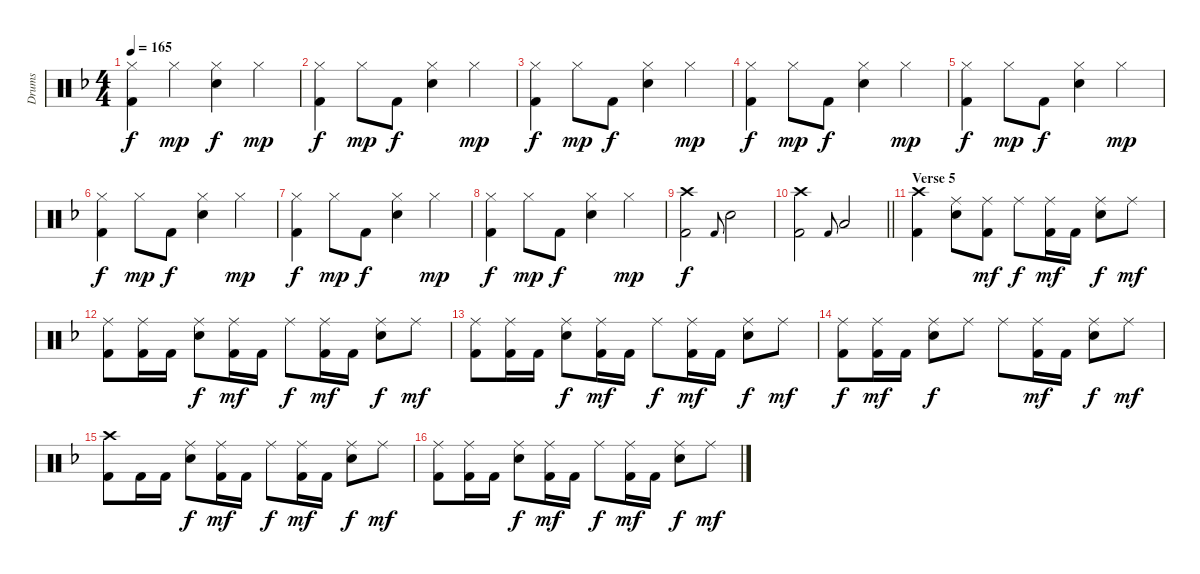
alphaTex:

\track ("Drums" "Drums") {instrument percussion}
\staff {score}
\articulation defaults
\ts (4 4)
\tempo 165
\clef neutral
\ks f
("Hi-Hat (closed)" "Kick (hit) 2").4{dy f} "Hi-Hat (closed)".4{dy mp} ("Hi-Hat (closed)" "Electric Snare (hit)").4{dy f} "Hi-Hat (closed)".4{dy mp} |
("Hi-Hat (closed)" "Kick (hit) 2").4{dy f} "Hi-Hat (closed)".8{dy mp} "Kick (hit) 2".8{dy f} ("Hi-Hat (closed)" "Electric Snare (hit)").4 "Hi-Hat (closed)".4{dy mp} |
("Hi-Hat (closed)" "Kick (hit) 2").4{dy f} "Hi-Hat (closed)".8{dy mp} "Kick (hit) 2".8{dy f} ("Hi-Hat (closed)" "Electric Snare (hit)").4 "Hi-Hat (closed)".4{dy mp} |
("Hi-Hat (closed)" "Kick (hit) 2").4{dy f} "Hi-Hat (closed)".8{dy mp} "Kick (hit) 2".8{dy f} ("Hi-Hat (closed)" "Electric Snare (hit)").4 "Hi-Hat (closed)".4{dy mp} |
("Hi-Hat (closed)" "Kick (hit) 2").4{dy f} "Hi-Hat (closed)".8{dy mp} "Kick (hit) 2".8{dy f} ("Hi-Hat (closed)" "Electric Snare (hit)").4 "Hi-Hat (closed)".4{dy mp} |
("Hi-Hat (closed)" "Kick (hit) 2").4{dy f} "Hi-Hat (closed)".8{dy mp} "Kick (hit) 2".8{dy f} ("Hi-Hat (closed)" "Electric Snare (hit)").4 "Hi-Hat (closed)".4{dy mp} |
("Hi-Hat (closed)" "Kick (hit) 2").4{dy f} "Hi-Hat (closed)".8{dy mp} "Kick (hit) 2".8{dy f} ("Hi-Hat (closed)" "Electric Snare (hit)").4 "Hi-Hat (closed)".4{dy mp} |
("Hi-Hat (closed)" "Kick (hit) 2").4{dy f} "Hi-Hat (closed)".8{dy mp} "Kick (hit) 2".8{dy f} ("Hi-Hat (closed)" "Electric Snare (hit)").4 "Hi-Hat (closed)".4{dy mp} |
("Crash high (hit)" "Kick (hit) 2").2{dy f} "Kick (hit) 2".8{gr onbeat} "Electric Snare (hit)".2 |
\barLineRight lightlight
("Crash high (hit)" "Kick (hit) 2").2 "Kick (hit) 2".8{gr onbeat} "Low Tom (hit)".2 |
\section ("" "Verse 5")
("Crash high (hit)" "Kick (hit) 2").4 ("Ride (middle)" "Electric Snare (hit)").8 ("Ride (middle)" "Kick (hit) 2").8{dy mf} "Ride (middle)".8{dy f} ("Ride (middle)" "Kick (hit) 2").16{dy mf} "Kick (hit) 2".16 ("Ride (middle)" "Electric Snare (hit)").8{dy f} "Ride (middle)".8{dy mf} |
("Ride (middle)" "Kick (hit) 2").8 ("Ride (middle)" "Kick (hit) 2").16 "Kick (hit) 2".16 ("Ride (middle)" "Electric Snare (hit)").8{dy f} ("Ride (middle)" "Kick (hit) 2").16{dy mf} "Kick (hit) 2".16 "Ride (middle)".8{dy f} ("Ride (middle)" "Kick (hit) 2").16{dy mf} "Kick (hit) 2".16 ("Ride (middle)" "Electric Snare (hit)").8{dy f} "Ride (middle)".8{dy mf} |
("Ride (middle)" "Kick (hit) 2").8 ("Ride (middle)" "Kick (hit) 2").16 "Kick (hit) 2".16 ("Ride (middle)" "Electric Snare (hit)").8{dy f} ("Ride (middle)" "Kick (hit) 2").16{dy mf} "Kick (hit) 2".16 "Ride (middle)".8{dy f} ("Ride (middle)" "Kick (hit) 2").16{dy mf} "Kick (hit) 2".16 ("Ride (middle)" "Electric Snare (hit)").8{dy f} "Ride (middle)".8{dy mf} |
("Ride (middle)" "Kick (hit) 2").8{dy f} ("Ride (middle)" "Kick (hit) 2").16{dy mf} "Kick (hit) 2".16 ("Ride (middle)" "Electric Snare (hit)").8{dy f} "Ride (middle)".8 "Ride (middle)".8 ("Ride (middle)" "Kick (hit) 2").16{dy mf} "Kick (hit) 2".16 ("Ride (middle)" "Electric Snare (hit)").8{dy f} "Ride (middle)".8{dy mf} |
("Crash high (hit)" "Kick (hit) 2").8 "Kick (hit) 2".16 "Kick (hit) 2".16 ("Ride (middle)" "Electric Snare (hit)").8{dy f} ("Ride (middle)" "Kick (hit) 2").16{dy mf} "Kick (hit) 2".16 "Ride (middle)".8{dy f} ("Ride (middle)" "Kick (hit) 2").16{dy mf} "Kick (hit) 2".16 ("Ride (middle)" "Electric Snare (hit)").8{dy f} "Ride (middle)".8{dy mf} |
("Ride (middle)" "Kick (hit) 2").8 ("Ride (middle)" "Kick (hit) 2").16 "Kick (hit) 2".16 ("Ride (middle)" "Electric Snare (hit)").8{dy f} ("Ride (middle)" "Kick (hit) 2").16{dy mf} "Kick (hit) 2".16 "Ride (middle)".8{dy f} ("Ride (middle)" "Kick (hit) 2").16{dy mf} "Kick (hit) 2".16 ("Ride (middle)" "Electric Snare (hit)").8{dy f} "Ride (middle)".8{dy mf}
